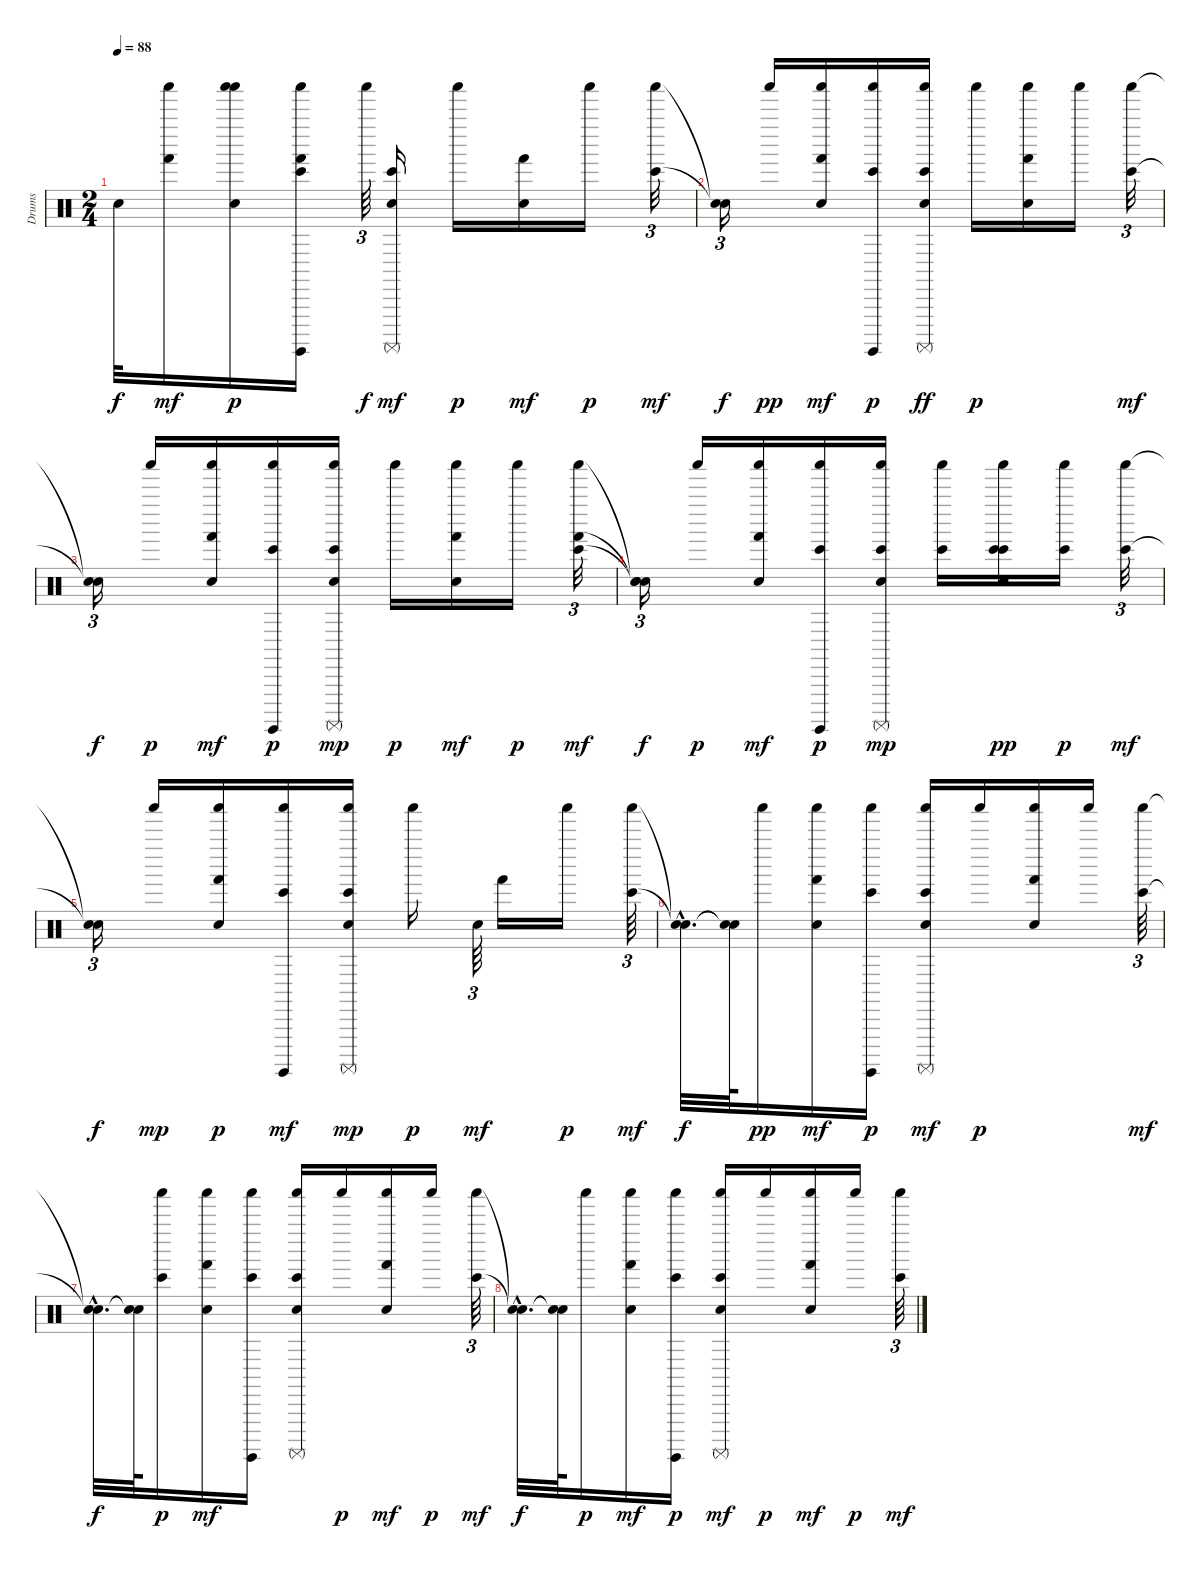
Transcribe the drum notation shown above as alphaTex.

\track ("Drums" "Drums") {instrument percussion}
\staff {score}
\articulation defaults
\ts (2 4)
\tempo 88
\clef neutral
\ks c "Snare (hit)"{t}.32{dy f}
("Shaker (hit)" "Hand (hit)").16{dy mf} ("Shaker (hit)" "Hand Clap (hit)" "Shaker (hit)").16{dy p} ("Hand (hit)" "Shaker (hit)" "Surdo (hit)" "Bongo High (hit)").16 "Shaker (hit)".64{tu (3 2) dy f} ("Bongo High (hit)" "Surdo (mute)" "Hand Clap (hit)").16{dy mf} "Shaker (hit)".16{dy p} ("Hand (hit)" "Hand Clap (hit)").16{dy mf} "Shaker (hit)".16{dy p} ("Shaker (hit)" "Bongo High (hit)").32{tu (3 2) dy mf} |
("Snare (hit)"{t} "Snare (hit)"{t}).16{tu (3 2) dy f} "Shaker (hit)".16{dy pp} ("Shaker (hit)" "Hand Clap (hit)" "Hand (hit)").16{dy mf} ("Bongo High (hit)" "Shaker (hit)" "Surdo (hit)").16{dy p} ("Hand Clap (hit)" "Shaker (hit)" "Bongo High (hit)" "Surdo (mute)").16{dy ff} "Shaker (hit)".16{dy p} ("Hand (hit)" "Shaker (hit)" "Hand Clap (hit)").16 "Shaker (hit)".16 ("Shaker (hit)" "Bongo High (hit)").32{tu (3 2) dy mf} |
("Snare (hit)"{t} "Snare (hit)"{t}).16{tu (3 2) dy f} "Shaker (hit)".16{dy p} ("Hand Clap (hit)" "Shaker (hit)" "Hand (hit)").16{dy mf} ("Surdo (hit)" "Shaker (hit)" "Bongo High (hit)").16{dy p} ("Shaker (hit)" "Hand Clap (hit)" "Surdo (mute)" "Bongo High (hit)").16{dy mp} "Shaker (hit)".16{dy p} ("Shaker (hit)" "Hand (hit)" "Hand Clap (hit)").16{dy mf} "Shaker (hit)".16{dy p} ("Hand (hit)" "Shaker (hit)" "Bongo High (hit)").32{tu (3 2) dy mf} |
("Snare (hit)"{t} "Snare (hit)"{t} "Snare (hit)"{t}).16{tu (3 2) dy f} "Shaker (hit)".16{dy p} ("Shaker (hit)" "Hand Clap (hit)" "Hand (hit)").16{dy mf} ("Bongo High (hit)" "Shaker (hit)" "Surdo (hit)").16{dy p} ("Shaker (hit)" "Hand Clap (hit)" "Surdo (mute)" "Bongo High (hit)").16{dy mp} ("Shaker (hit)" "Bongo High (hit)").16 ("Bongo High (hit)" "Hand Clap (hit)" "Bongo High (hit)" "Shaker (hit)").16{dy pp} ("Shaker (hit)" "Bongo High (hit)").16{dy p} ("Shaker (hit)" "Bongo High (hit)").32{tu (3 2) dy mf} |
("Snare (hit)"{t} "Snare (hit)"{t}).16{tu (3 2) dy f} "Shaker (hit)".16{dy mp} ("Hand Clap (hit)" "Hand (hit)" "Shaker (hit)").16{dy p} ("Shaker (hit)" "Surdo (hit)" "Bongo High (hit)").16{dy mf} ("Hand Clap (hit)" "Shaker (hit)" "Bongo High (hit)" "Surdo (mute)").16{dy mp} "Shaker (hit)".16{dy p} "Hand Clap (hit)".64{tu (3 2) dy mf} "Hand (hit)".16 "Shaker (hit)".16{dy p} ("Shaker (hit)" "Bongo High (hit)").64{tu (3 2) dy mf} |
("Snare (hit)"{hac t} "Snare (hit)"{hac t}).32{d dy f} ("Snare (hit)"{t} "Snare (hit)"{t}).64 "Shaker (hit)".16{dy pp} ("Hand Clap (hit)" "Shaker (hit)" "Hand (hit)").16{dy mf} ("Surdo (hit)" "Shaker (hit)" "Bongo High (hit)").16{dy p} ("Hand Clap (hit)" "Surdo (mute)" "Shaker (hit)" "Bongo High (hit)").16{dy mf} "Shaker (hit)".16{dy p} ("Hand Clap (hit)" "Shaker (hit)" "Hand (hit)").16 "Shaker (hit)".16 ("Shaker (hit)" "Bongo High (hit)").64{tu (3 2) dy mf} |
("Snare (hit)"{hac t} "Snare (hit)"{hac t}).32{d dy f} ("Snare (hit)"{t} "Snare (hit)"{t}).64 ("Shaker (hit)" "Bongo High (hit)").16{dy p} ("Hand Clap (hit)" "Shaker (hit)" "Hand (hit)").16{dy mf} ("Surdo (hit)" "Shaker (hit)" "Bongo High (hit)").16 ("Surdo (mute)" "Hand Clap (hit)" "Shaker (hit)" "Bongo High (hit)").16 "Shaker (hit)".16{dy p} ("Shaker (hit)" "Hand Clap (hit)" "Hand (hit)").16{dy mf} "Shaker (hit)".16{dy p} ("Shaker (hit)" "Bongo High (hit)").64{tu (3 2) dy mf} |
("Snare (hit)"{hac t} "Snare (hit)"{hac t}).32{d dy f} ("Snare (hit)"{t} "Snare (hit)"{t}).64 "Shaker (hit)".16{dy p} ("Shaker (hit)" "Hand Clap (hit)" "Hand (hit)").16{dy mf} ("Shaker (hit)" "Bongo High (hit)" "Surdo (hit)").16{dy p} ("Hand Clap (hit)" "Shaker (hit)" "Surdo (mute)" "Bongo High (hit)").16{dy mf} "Shaker (hit)".16{dy p} ("Shaker (hit)" "Hand Clap (hit)" "Hand (hit)").16{dy mf} "Shaker (hit)".16{dy p} ("Shaker (hit)" "Bongo High (hit)").64{tu (3 2) dy mf}
